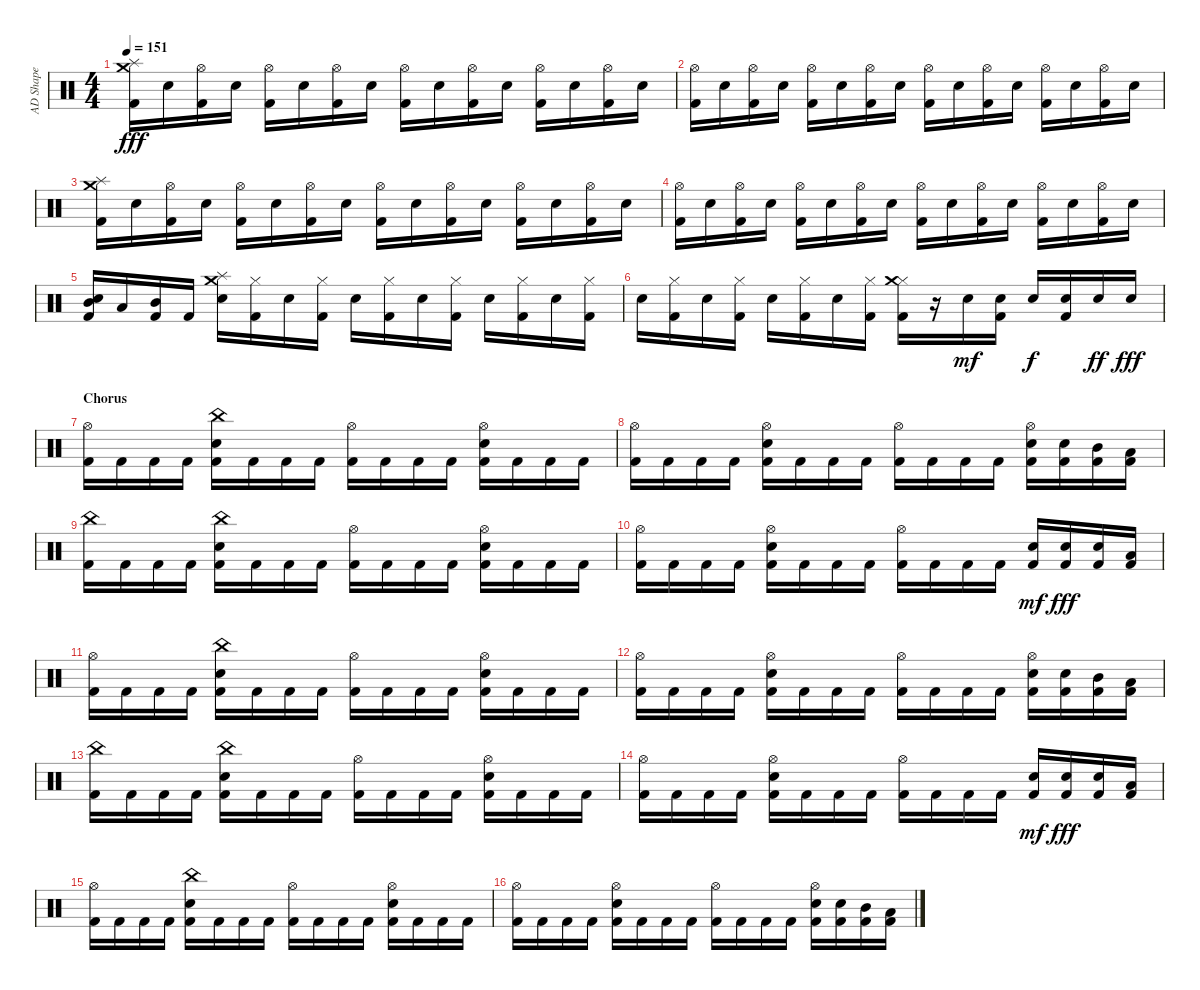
\track ("AD Shape" "AD Shape") {instrument percussion}
\staff {score}
\articulation defaults
\ts (4 4)
\tempo 151
\clef neutral
\ks c
("Kick (hit) 2" "Splash (hit)" "Crash medium (hit)").16{dy fff} "Snare (hit) 2".16 ("Kick (hit) 2" "Hi-Hat (open)").16 "Snare (hit) 2".16 ("Kick (hit) 2" "Hi-Hat (open)").16 "Snare (hit) 2".16 ("Kick (hit) 2" "Hi-Hat (open)").16 "Snare (hit) 2".16 ("Kick (hit) 2" "Hi-Hat (open)").16 "Snare (hit) 2".16 ("Kick (hit) 2" "Hi-Hat (open)").16 "Snare (hit) 2".16 ("Kick (hit) 2" "Hi-Hat (open)").16 "Snare (hit) 2".16 ("Kick (hit) 2" "Hi-Hat (open)").16 "Snare (hit) 2".16 |
("Kick (hit) 2" "Hi-Hat (open)").16 "Snare (hit) 2".16 ("Kick (hit) 2" "Hi-Hat (open)").16 "Snare (hit) 2".16 ("Kick (hit) 2" "Hi-Hat (open)").16 "Snare (hit) 2".16 ("Kick (hit) 2" "Hi-Hat (open)").16 "Snare (hit) 2".16 ("Kick (hit) 2" "Hi-Hat (open)").16 "Snare (hit) 2".16 ("Kick (hit) 2" "Hi-Hat (open)").16 "Snare (hit) 2".16 ("Kick (hit) 2" "Hi-Hat (open)").16 "Snare (hit) 2".16 ("Kick (hit) 2" "Hi-Hat (open)").16 "Snare (hit) 2".16 |
("Kick (hit) 2" "Splash (hit)" "Crash medium (hit)").16 "Snare (hit) 2".16 ("Kick (hit) 2" "Hi-Hat (open)").16 "Snare (hit) 2".16 ("Kick (hit) 2" "Hi-Hat (open)").16 "Snare (hit) 2".16 ("Kick (hit) 2" "Hi-Hat (open)").16 "Snare (hit) 2".16 ("Kick (hit) 2" "Hi-Hat (open)").16 "Snare (hit) 2".16 ("Kick (hit) 2" "Hi-Hat (open)").16 "Snare (hit) 2".16 ("Kick (hit) 2" "Hi-Hat (open)").16 "Snare (hit) 2".16 ("Kick (hit) 2" "Hi-Hat (open)").16 "Snare (hit) 2".16 |
("Kick (hit) 2" "Hi-Hat (open)").16 "Snare (hit) 2".16 ("Kick (hit) 2" "Hi-Hat (open)").16 "Snare (hit) 2".16 ("Kick (hit) 2" "Hi-Hat (open)").16 "Snare (hit) 2".16 ("Kick (hit) 2" "Hi-Hat (open)").16 "Snare (hit) 2".16 ("Kick (hit) 2" "Hi-Hat (open)").16 "Snare (hit) 2".16 ("Kick (hit) 2" "Hi-Hat (open)").16 "Snare (hit) 2".16 ("Kick (hit) 2" "Hi-Hat (open)").16 "Snare (hit) 2".16 ("Kick (hit) 2" "Hi-Hat (open)").16 "Snare (hit) 2".16 |
("Kick (hit) 2" "Snare (hit) 2" "Mid Tom (hit)").16 "Low Tom (hit)".16 ("Kick (hit) 2" "Mid Tom (hit)").16 "Kick (hit) 2".16 ("Snare (hit) 2" "Splash (hit)" "Crash medium (hit)").16 ("Kick (hit) 2" "Hi-Hat (closed)").16 "Snare (hit) 2".16 ("Kick (hit) 2" "Hi-Hat (closed)").16 "Snare (hit) 2".16 ("Kick (hit) 2" "Hi-Hat (closed)").16 "Snare (hit) 2".16 ("Kick (hit) 2" "Hi-Hat (closed)").16 "Snare (hit) 2".16 ("Kick (hit) 2" "Hi-Hat (closed)").16 "Snare (hit) 2".16 ("Kick (hit) 2" "Hi-Hat (closed)").16 |
"Snare (hit) 2".16 ("Kick (hit) 2" "Hi-Hat (closed)").16 "Snare (hit) 2".16 ("Kick (hit) 2" "Hi-Hat (closed)").16 "Snare (hit) 2".16 ("Kick (hit) 2" "Hi-Hat (closed)").16 "Snare (hit) 2".16 ("Kick (hit) 2" "Hi-Hat (closed)").16 ("Kick (hit) 2" "Hi-Hat (closed)" "Crash medium (hit)").16 r.16 "Snare (hit) 2".16{dy mf} ("Kick (hit) 2" "Snare (hit) 2").16 "Snare (hit) 2".16{dy f} ("Kick (hit) 2" "Snare (hit) 2").16 "Snare (hit) 2".16{dy ff} "Snare (hit) 2".16{dy fff} |
\section ("" "Chorus")
("Kick (hit) 2" "Hi-Hat (open)").16 "Kick (hit) 2".16 "Kick (hit) 2".16 "Kick (hit) 2".16 ("Kick (hit) 2" "Snare (hit) 2" "China (hit)").16 "Kick (hit) 2".16 "Kick (hit) 2".16 "Kick (hit) 2".16 ("Kick (hit) 2" "Hi-Hat (open)").16 "Kick (hit) 2".16 "Kick (hit) 2".16 "Kick (hit) 2".16 ("Kick (hit) 2" "Snare (hit) 2" "Hi-Hat (open)").16 "Kick (hit) 2".16 "Kick (hit) 2".16 "Kick (hit) 2".16 |
("Kick (hit) 2" "Hi-Hat (open)").16 "Kick (hit) 2".16 "Kick (hit) 2".16 "Kick (hit) 2".16 ("Kick (hit) 2" "Snare (hit) 2" "Hi-Hat (open)").16 "Kick (hit) 2".16 "Kick (hit) 2".16 "Kick (hit) 2".16 ("Kick (hit) 2" "Hi-Hat (open)").16 "Kick (hit) 2".16 "Kick (hit) 2".16 "Kick (hit) 2".16 ("Kick (hit) 2" "Snare (hit) 2" "Hi-Hat (open)").16 ("Kick (hit) 2" "Snare (hit) 2").16 ("Kick (hit) 2" "Mid Tom (hit)").16 ("Kick (hit) 2" "Low Tom (hit)").16 |
("Kick (hit) 2" "China (hit)").16 "Kick (hit) 2".16 "Kick (hit) 2".16 "Kick (hit) 2".16 ("Kick (hit) 2" "Snare (hit) 2" "China (hit)").16 "Kick (hit) 2".16 "Kick (hit) 2".16 "Kick (hit) 2".16 ("Kick (hit) 2" "Hi-Hat (open)").16 "Kick (hit) 2".16 "Kick (hit) 2".16 "Kick (hit) 2".16 ("Kick (hit) 2" "Snare (hit) 2" "Hi-Hat (open)").16 "Kick (hit) 2".16 "Kick (hit) 2".16 "Kick (hit) 2".16 |
("Kick (hit) 2" "Hi-Hat (open)").16 "Kick (hit) 2".16 "Kick (hit) 2".16 "Kick (hit) 2".16 ("Kick (hit) 2" "Snare (hit) 2" "Hi-Hat (open)").16 "Kick (hit) 2".16 "Kick (hit) 2".16 "Kick (hit) 2".16 ("Kick (hit) 2" "Hi-Hat (open)").16 "Kick (hit) 2".16 "Kick (hit) 2".16 "Kick (hit) 2".16 ("Kick (hit) 2" "Snare (hit) 2").16{dy mf} ("Kick (hit) 2" "Snare (hit) 2").16{dy fff} ("Kick (hit) 2" "Snare (hit) 2").16 ("Kick (hit) 2" "Low Tom (hit)").16 |
("Kick (hit) 2" "Hi-Hat (open)").16 "Kick (hit) 2".16 "Kick (hit) 2".16 "Kick (hit) 2".16 ("Kick (hit) 2" "Snare (hit) 2" "China (hit)").16 "Kick (hit) 2".16 "Kick (hit) 2".16 "Kick (hit) 2".16 ("Kick (hit) 2" "Hi-Hat (open)").16 "Kick (hit) 2".16 "Kick (hit) 2".16 "Kick (hit) 2".16 ("Kick (hit) 2" "Snare (hit) 2" "Hi-Hat (open)").16 "Kick (hit) 2".16 "Kick (hit) 2".16 "Kick (hit) 2".16 |
("Kick (hit) 2" "Hi-Hat (open)").16 "Kick (hit) 2".16 "Kick (hit) 2".16 "Kick (hit) 2".16 ("Kick (hit) 2" "Snare (hit) 2" "Hi-Hat (open)").16 "Kick (hit) 2".16 "Kick (hit) 2".16 "Kick (hit) 2".16 ("Kick (hit) 2" "Hi-Hat (open)").16 "Kick (hit) 2".16 "Kick (hit) 2".16 "Kick (hit) 2".16 ("Kick (hit) 2" "Snare (hit) 2" "Hi-Hat (open)").16 ("Kick (hit) 2" "Snare (hit) 2").16 ("Kick (hit) 2" "Mid Tom (hit)").16 ("Kick (hit) 2" "Low Tom (hit)").16 |
("Kick (hit) 2" "China (hit)").16 "Kick (hit) 2".16 "Kick (hit) 2".16 "Kick (hit) 2".16 ("Kick (hit) 2" "Snare (hit) 2" "China (hit)").16 "Kick (hit) 2".16 "Kick (hit) 2".16 "Kick (hit) 2".16 ("Kick (hit) 2" "Hi-Hat (open)").16 "Kick (hit) 2".16 "Kick (hit) 2".16 "Kick (hit) 2".16 ("Kick (hit) 2" "Snare (hit) 2" "Hi-Hat (open)").16 "Kick (hit) 2".16 "Kick (hit) 2".16 "Kick (hit) 2".16 |
("Kick (hit) 2" "Hi-Hat (open)").16 "Kick (hit) 2".16 "Kick (hit) 2".16 "Kick (hit) 2".16 ("Kick (hit) 2" "Snare (hit) 2" "Hi-Hat (open)").16 "Kick (hit) 2".16 "Kick (hit) 2".16 "Kick (hit) 2".16 ("Kick (hit) 2" "Hi-Hat (open)").16 "Kick (hit) 2".16 "Kick (hit) 2".16 "Kick (hit) 2".16 ("Kick (hit) 2" "Snare (hit) 2").16{dy mf} ("Kick (hit) 2" "Snare (hit) 2").16{dy fff} ("Kick (hit) 2" "Snare (hit) 2").16 ("Kick (hit) 2" "Low Tom (hit)").16 |
("Kick (hit) 2" "Hi-Hat (open)").16 "Kick (hit) 2".16 "Kick (hit) 2".16 "Kick (hit) 2".16 ("Kick (hit) 2" "Snare (hit) 2" "China (hit)").16 "Kick (hit) 2".16 "Kick (hit) 2".16 "Kick (hit) 2".16 ("Kick (hit) 2" "Hi-Hat (open)").16 "Kick (hit) 2".16 "Kick (hit) 2".16 "Kick (hit) 2".16 ("Kick (hit) 2" "Snare (hit) 2" "Hi-Hat (open)").16 "Kick (hit) 2".16 "Kick (hit) 2".16 "Kick (hit) 2".16 |
("Kick (hit) 2" "Hi-Hat (open)").16 "Kick (hit) 2".16 "Kick (hit) 2".16 "Kick (hit) 2".16 ("Kick (hit) 2" "Snare (hit) 2" "Hi-Hat (open)").16 "Kick (hit) 2".16 "Kick (hit) 2".16 "Kick (hit) 2".16 ("Kick (hit) 2" "Hi-Hat (open)").16 "Kick (hit) 2".16 "Kick (hit) 2".16 "Kick (hit) 2".16 ("Kick (hit) 2" "Snare (hit) 2" "Hi-Hat (open)").16 ("Kick (hit) 2" "Snare (hit) 2").16 ("Kick (hit) 2" "Mid Tom (hit)").16 ("Kick (hit) 2" "Low Tom (hit)").16
